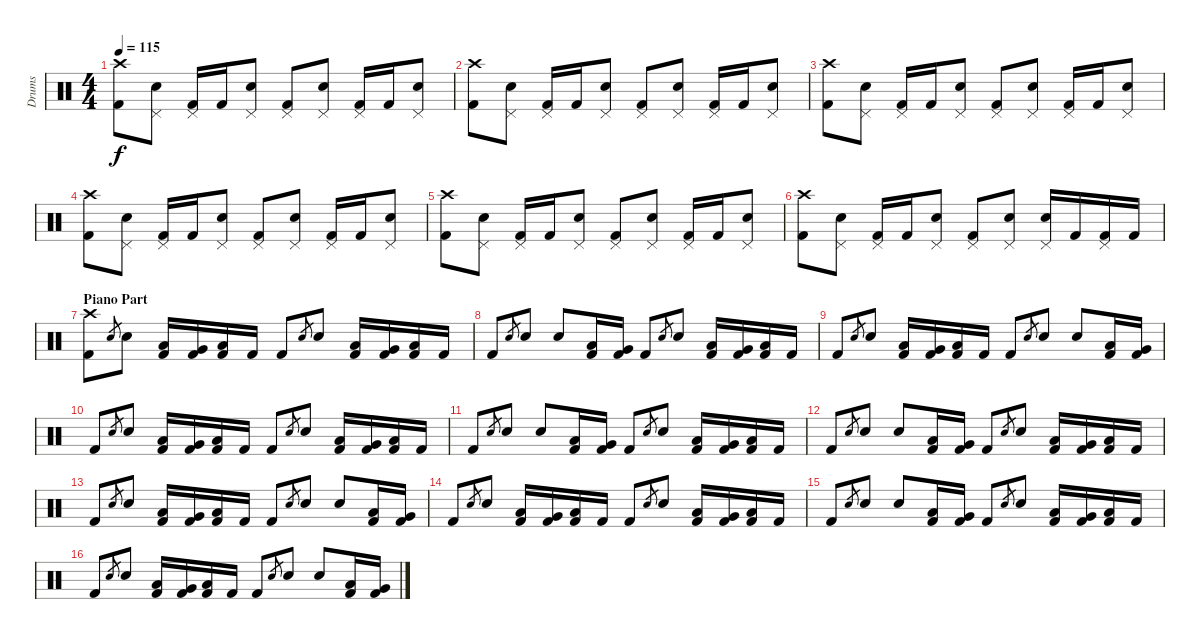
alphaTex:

\track ("Drums" "Drums") {instrument percussion}
\staff {score}
\articulation defaults
\ts (4 4)
\tempo 115
\clef neutral
\ks c
("Crash high (hit)" "Kick (hit) 2").8{dy f} ("Pedal Hi-Hat (hit)" "Electric Snare (hit)").8 ("Pedal Hi-Hat (hit)" "Kick (hit) 2").16 "Kick (hit) 2".16 ("Pedal Hi-Hat (hit)" "Electric Snare (hit)").8 ("Pedal Hi-Hat (hit)" "Kick (hit) 2").8 ("Pedal Hi-Hat (hit)" "Electric Snare (hit)").8 ("Pedal Hi-Hat (hit)" "Kick (hit) 2").16 "Kick (hit) 2".16 ("Pedal Hi-Hat (hit)" "Electric Snare (hit)").8 |
("Crash high (hit)" "Kick (hit) 2").8 ("Pedal Hi-Hat (hit)" "Electric Snare (hit)").8 ("Pedal Hi-Hat (hit)" "Kick (hit) 2").16 "Kick (hit) 2".16 ("Pedal Hi-Hat (hit)" "Electric Snare (hit)").8 ("Pedal Hi-Hat (hit)" "Kick (hit) 2").8 ("Pedal Hi-Hat (hit)" "Electric Snare (hit)").8 ("Pedal Hi-Hat (hit)" "Kick (hit) 2").16 "Kick (hit) 2".16 ("Pedal Hi-Hat (hit)" "Electric Snare (hit)").8 |
("Crash high (hit)" "Kick (hit) 2").8 ("Pedal Hi-Hat (hit)" "Electric Snare (hit)").8 ("Pedal Hi-Hat (hit)" "Kick (hit) 2").16 "Kick (hit) 2".16 ("Pedal Hi-Hat (hit)" "Electric Snare (hit)").8 ("Pedal Hi-Hat (hit)" "Kick (hit) 2").8 ("Pedal Hi-Hat (hit)" "Electric Snare (hit)").8 ("Pedal Hi-Hat (hit)" "Kick (hit) 2").16 "Kick (hit) 2".16 ("Pedal Hi-Hat (hit)" "Electric Snare (hit)").8 |
("Crash high (hit)" "Kick (hit) 2").8 ("Pedal Hi-Hat (hit)" "Electric Snare (hit)").8 ("Pedal Hi-Hat (hit)" "Kick (hit) 2").16 "Kick (hit) 2".16 ("Pedal Hi-Hat (hit)" "Electric Snare (hit)").8 ("Pedal Hi-Hat (hit)" "Kick (hit) 2").8 ("Pedal Hi-Hat (hit)" "Electric Snare (hit)").8 ("Pedal Hi-Hat (hit)" "Kick (hit) 2").16 "Kick (hit) 2".16 ("Pedal Hi-Hat (hit)" "Electric Snare (hit)").8 |
("Crash high (hit)" "Kick (hit) 2").8 ("Pedal Hi-Hat (hit)" "Electric Snare (hit)").8 ("Pedal Hi-Hat (hit)" "Kick (hit) 2").16 "Kick (hit) 2".16 ("Pedal Hi-Hat (hit)" "Electric Snare (hit)").8 ("Pedal Hi-Hat (hit)" "Kick (hit) 2").8 ("Pedal Hi-Hat (hit)" "Electric Snare (hit)").8 ("Pedal Hi-Hat (hit)" "Kick (hit) 2").16 "Kick (hit) 2".16 ("Pedal Hi-Hat (hit)" "Electric Snare (hit)").8 |
("Crash high (hit)" "Kick (hit) 2").8 ("Pedal Hi-Hat (hit)" "Electric Snare (hit)").8 ("Pedal Hi-Hat (hit)" "Kick (hit) 2").16 "Kick (hit) 2".16 ("Pedal Hi-Hat (hit)" "Electric Snare (hit)").8 ("Pedal Hi-Hat (hit)" "Kick (hit) 2").8 ("Pedal Hi-Hat (hit)" "Electric Snare (hit)").8 ("Pedal Hi-Hat (hit)" "Electric Snare (hit)").16 "Kick (hit) 2".16 ("Pedal Hi-Hat (hit)" "Kick (hit) 2").16 "Kick (hit) 2".16 |
\section ("" "Piano Part")
("Crash high (hit)" "Kick (hit) 2").8 "Snare (hit) 2".8{gr} "Snare (hit) 2".8 ("Low Tom (hit)" "Kick (hit) 2").16 ("Very Low Tom (hit)" "Kick (hit) 2").16 ("Low Floor Tom (hit)" "Kick (hit) 2").16 "Kick (hit) 2".16 "Kick (hit) 2".8 "Snare (hit) 2".8{gr} "Snare (hit) 2".8 ("Low Tom (hit)" "Kick (hit) 2").16 ("Very Low Tom (hit)" "Kick (hit) 2").16 ("Low Floor Tom (hit)" "Kick (hit) 2").16 "Kick (hit) 2".16 |
"Kick (hit) 2".8 "Snare (hit) 2".8{gr} "Snare (hit) 2".8 "Snare (hit) 2".8 ("Low Tom (hit)" "Kick (hit) 2").16 ("Very Low Tom (hit)" "Kick (hit) 2").16 "Kick (hit) 2".8 "Snare (hit) 2".8{gr} "Snare (hit) 2".8 ("Low Tom (hit)" "Kick (hit) 2").16 ("Very Low Tom (hit)" "Kick (hit) 2").16 ("Low Floor Tom (hit)" "Kick (hit) 2").16 "Kick (hit) 2".16 |
"Kick (hit) 2".8 "Snare (hit) 2".8{gr} "Snare (hit) 2".8 ("Low Tom (hit)" "Kick (hit) 2").16 ("Very Low Tom (hit)" "Kick (hit) 2").16 ("Low Floor Tom (hit)" "Kick (hit) 2").16 "Kick (hit) 2".16 "Kick (hit) 2".8 "Snare (hit) 2".8{gr} "Snare (hit) 2".8 "Snare (hit) 2".8 ("Low Tom (hit)" "Kick (hit) 2").16 ("Very Low Tom (hit)" "Kick (hit) 2").16 |
"Kick (hit) 2".8 "Snare (hit) 2".8{gr} "Snare (hit) 2".8 ("Low Tom (hit)" "Kick (hit) 2").16 ("Very Low Tom (hit)" "Kick (hit) 2").16 ("Low Floor Tom (hit)" "Kick (hit) 2").16 "Kick (hit) 2".16 "Kick (hit) 2".8 "Snare (hit) 2".8{gr} "Snare (hit) 2".8 ("Low Tom (hit)" "Kick (hit) 2").16 ("Very Low Tom (hit)" "Kick (hit) 2").16 ("Low Floor Tom (hit)" "Kick (hit) 2").16 "Kick (hit) 2".16 |
"Kick (hit) 2".8 "Snare (hit) 2".8{gr} "Snare (hit) 2".8 "Snare (hit) 2".8 ("Low Tom (hit)" "Kick (hit) 2").16 ("Very Low Tom (hit)" "Kick (hit) 2").16 "Kick (hit) 2".8 "Snare (hit) 2".8{gr} "Snare (hit) 2".8 ("Low Tom (hit)" "Kick (hit) 2").16 ("Very Low Tom (hit)" "Kick (hit) 2").16 ("Low Floor Tom (hit)" "Kick (hit) 2").16 "Kick (hit) 2".16 |
"Kick (hit) 2".8 "Snare (hit) 2".8{gr} "Snare (hit) 2".8 "Snare (hit) 2".8 ("Low Tom (hit)" "Kick (hit) 2").16 ("Very Low Tom (hit)" "Kick (hit) 2").16 "Kick (hit) 2".8 "Snare (hit) 2".8{gr} "Snare (hit) 2".8 ("Low Tom (hit)" "Kick (hit) 2").16 ("Very Low Tom (hit)" "Kick (hit) 2").16 ("Low Floor Tom (hit)" "Kick (hit) 2").16 "Kick (hit) 2".16 |
"Kick (hit) 2".8 "Snare (hit) 2".8{gr} "Snare (hit) 2".8 ("Low Tom (hit)" "Kick (hit) 2").16 ("Very Low Tom (hit)" "Kick (hit) 2").16 ("Low Floor Tom (hit)" "Kick (hit) 2").16 "Kick (hit) 2".16 "Kick (hit) 2".8 "Snare (hit) 2".8{gr} "Snare (hit) 2".8 "Snare (hit) 2".8 ("Low Tom (hit)" "Kick (hit) 2").16 ("Very Low Tom (hit)" "Kick (hit) 2").16 |
"Kick (hit) 2".8 "Snare (hit) 2".8{gr} "Snare (hit) 2".8 ("Low Tom (hit)" "Kick (hit) 2").16 ("Very Low Tom (hit)" "Kick (hit) 2").16 ("Low Floor Tom (hit)" "Kick (hit) 2").16 "Kick (hit) 2".16 "Kick (hit) 2".8 "Snare (hit) 2".8{gr} "Snare (hit) 2".8 ("Low Tom (hit)" "Kick (hit) 2").16 ("Very Low Tom (hit)" "Kick (hit) 2").16 ("Low Floor Tom (hit)" "Kick (hit) 2").16 "Kick (hit) 2".16 |
"Kick (hit) 2".8 "Snare (hit) 2".8{gr} "Snare (hit) 2".8 "Snare (hit) 2".8 ("Low Tom (hit)" "Kick (hit) 2").16 ("Very Low Tom (hit)" "Kick (hit) 2").16 "Kick (hit) 2".8 "Snare (hit) 2".8{gr} "Snare (hit) 2".8 ("Low Tom (hit)" "Kick (hit) 2").16 ("Very Low Tom (hit)" "Kick (hit) 2").16 ("Low Floor Tom (hit)" "Kick (hit) 2").16 "Kick (hit) 2".16 |
"Kick (hit) 2".8 "Snare (hit) 2".8{gr} "Snare (hit) 2".8 ("Low Tom (hit)" "Kick (hit) 2").16 ("Very Low Tom (hit)" "Kick (hit) 2").16 ("Low Floor Tom (hit)" "Kick (hit) 2").16 "Kick (hit) 2".16 "Kick (hit) 2".8 "Snare (hit) 2".8{gr} "Snare (hit) 2".8 "Snare (hit) 2".8 ("Low Tom (hit)" "Kick (hit) 2").16 ("Very Low Tom (hit)" "Kick (hit) 2").16
